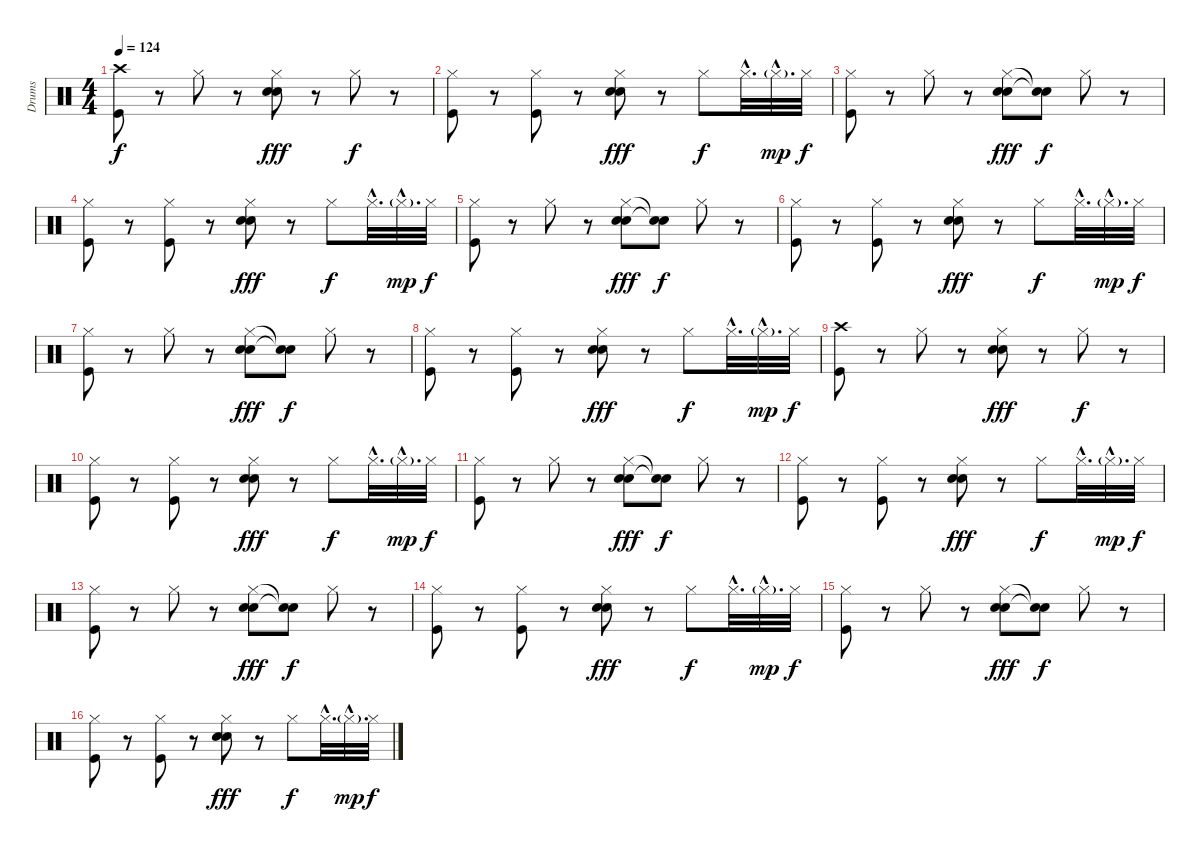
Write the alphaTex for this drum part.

\track ("Drums" "Drums") {instrument percussion}
\staff {score}
\articulation defaults
\ts (4 4)
\tempo 124
\clef neutral
\ks c
("Crash high (hit)" "Kick (hit)").8{dy f} r.8 "Hi-Hat (closed)".8 r.8 ("Hi-Hat (closed)" "Snare (hit) 2" "Snare (hit) 2").8{dy fff} r.8 "Hi-Hat (closed)".8{dy f} r.8 |
("Hi-Hat (closed)" "Kick (hit)").8 r.8 ("Hi-Hat (closed)" "Kick (hit)").8 r.8 ("Hi-Hat (closed)" "Snare (hit) 2" "Snare (hit) 2").8{dy fff} r.8 "Hi-Hat (closed)".8{dy f} "Hi-Hat (closed)"{hac}.32{d} "Hi-Hat (closed)"{g hac}.32{d dy mp} "Hi-Hat (closed)".32{dy f} |
("Hi-Hat (closed)" "Kick (hit)").8 r.8 "Hi-Hat (closed)".8 r.8 ("Hi-Hat (closed)" "Snare (hit) 2" "Snare (hit) 2").8{dy fff} ("Snare (hit)"{t} "Snare (hit)"{t}).8{dy f} "Hi-Hat (closed)".8 r.8 |
("Hi-Hat (closed)" "Kick (hit)").8 r.8 ("Hi-Hat (closed)" "Kick (hit)").8 r.8 ("Hi-Hat (closed)" "Snare (hit) 2" "Snare (hit) 2").8{dy fff} r.8 "Hi-Hat (closed)".8{dy f} "Hi-Hat (closed)"{hac}.32{d} "Hi-Hat (closed)"{g hac}.32{d dy mp} "Hi-Hat (closed)".32{dy f} |
("Hi-Hat (closed)" "Kick (hit)").8 r.8 "Hi-Hat (closed)".8 r.8 ("Hi-Hat (closed)" "Snare (hit) 2" "Snare (hit) 2").8{dy fff} ("Snare (hit)"{t} "Snare (hit)"{t}).8{dy f} "Hi-Hat (closed)".8 r.8 |
("Hi-Hat (closed)" "Kick (hit)").8 r.8 ("Hi-Hat (closed)" "Kick (hit)").8 r.8 ("Hi-Hat (closed)" "Snare (hit) 2" "Snare (hit) 2").8{dy fff} r.8 "Hi-Hat (closed)".8{dy f} "Hi-Hat (closed)"{hac}.32{d} "Hi-Hat (closed)"{g hac}.32{d dy mp} "Hi-Hat (closed)".32{dy f} |
("Hi-Hat (closed)" "Kick (hit)").8 r.8 "Hi-Hat (closed)".8 r.8 ("Hi-Hat (closed)" "Snare (hit) 2" "Snare (hit) 2").8{dy fff} ("Snare (hit)"{t} "Snare (hit)"{t}).8{dy f} "Hi-Hat (closed)".8 r.8 |
("Hi-Hat (closed)" "Kick (hit)").8 r.8 ("Hi-Hat (closed)" "Kick (hit)").8 r.8 ("Hi-Hat (closed)" "Snare (hit) 2" "Snare (hit) 2").8{dy fff} r.8 "Hi-Hat (closed)".8{dy f} "Hi-Hat (closed)"{hac}.32{d} "Hi-Hat (closed)"{g hac}.32{d dy mp} "Hi-Hat (closed)".32{dy f} |
("Crash high (hit)" "Kick (hit)").8 r.8 "Hi-Hat (closed)".8 r.8 ("Hi-Hat (closed)" "Snare (hit) 2" "Snare (hit) 2").8{dy fff} r.8 "Hi-Hat (closed)".8{dy f} r.8 |
("Hi-Hat (closed)" "Kick (hit)").8 r.8 ("Hi-Hat (closed)" "Kick (hit)").8 r.8 ("Hi-Hat (closed)" "Snare (hit) 2" "Snare (hit) 2").8{dy fff} r.8 "Hi-Hat (closed)".8{dy f} "Hi-Hat (closed)"{hac}.32{d} "Hi-Hat (closed)"{g hac}.32{d dy mp} "Hi-Hat (closed)".32{dy f} |
("Hi-Hat (closed)" "Kick (hit)").8 r.8 "Hi-Hat (closed)".8 r.8 ("Hi-Hat (closed)" "Snare (hit) 2" "Snare (hit) 2").8{dy fff} ("Snare (hit)"{t} "Snare (hit)"{t}).8{dy f} "Hi-Hat (closed)".8 r.8 |
("Hi-Hat (closed)" "Kick (hit)").8 r.8 ("Hi-Hat (closed)" "Kick (hit)").8 r.8 ("Hi-Hat (closed)" "Snare (hit) 2" "Snare (hit) 2").8{dy fff} r.8 "Hi-Hat (closed)".8{dy f} "Hi-Hat (closed)"{hac}.32{d} "Hi-Hat (closed)"{g hac}.32{d dy mp} "Hi-Hat (closed)".32{dy f} |
("Hi-Hat (closed)" "Kick (hit)").8 r.8 "Hi-Hat (closed)".8 r.8 ("Hi-Hat (closed)" "Snare (hit) 2" "Snare (hit) 2").8{dy fff} ("Snare (hit)"{t} "Snare (hit)"{t}).8{dy f} "Hi-Hat (closed)".8 r.8 |
("Hi-Hat (closed)" "Kick (hit)").8 r.8 ("Hi-Hat (closed)" "Kick (hit)").8 r.8 ("Hi-Hat (closed)" "Snare (hit) 2" "Snare (hit) 2").8{dy fff} r.8 "Hi-Hat (closed)".8{dy f} "Hi-Hat (closed)"{hac}.32{d} "Hi-Hat (closed)"{g hac}.32{d dy mp} "Hi-Hat (closed)".32{dy f} |
("Hi-Hat (closed)" "Kick (hit)").8 r.8 "Hi-Hat (closed)".8 r.8 ("Hi-Hat (closed)" "Snare (hit) 2" "Snare (hit) 2").8{dy fff} ("Snare (hit)"{t} "Snare (hit)"{t}).8{dy f} "Hi-Hat (closed)".8 r.8 |
("Hi-Hat (closed)" "Kick (hit)").8 r.8 ("Hi-Hat (closed)" "Kick (hit)").8 r.8 ("Hi-Hat (closed)" "Snare (hit) 2" "Snare (hit) 2").8{dy fff} r.8 "Hi-Hat (closed)".8{dy f} "Hi-Hat (closed)"{hac}.32{d} "Hi-Hat (closed)"{g hac}.32{d dy mp} "Hi-Hat (closed)".32{dy f}
